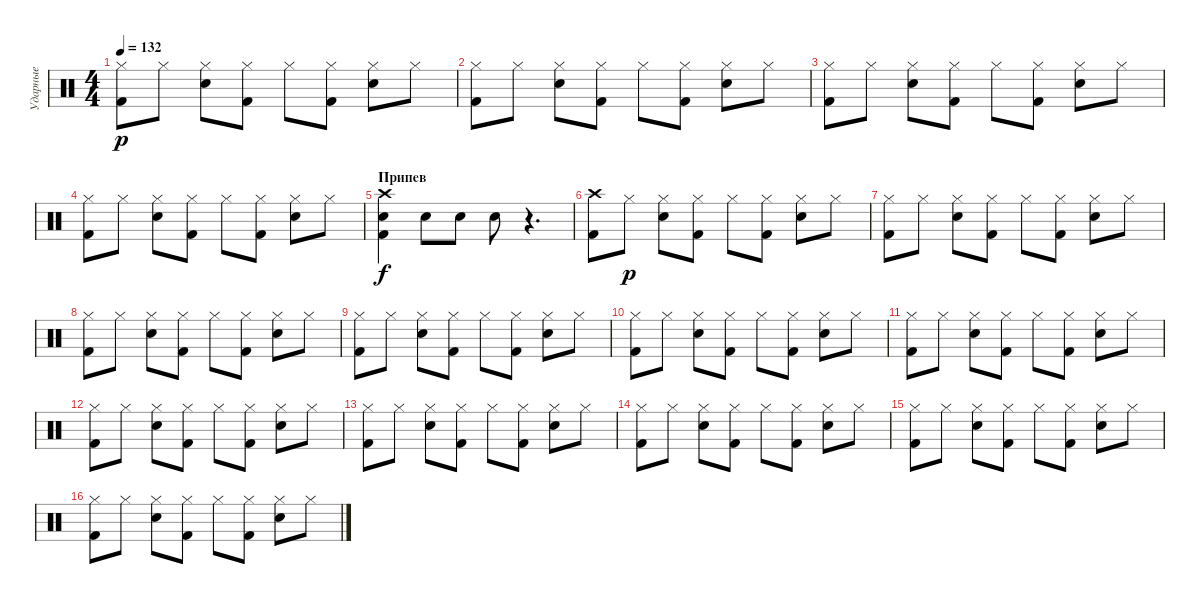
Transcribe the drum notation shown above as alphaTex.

\track ("Ударные" "Ударные") {instrument percussion}
\staff {score}
\articulation defaults
\ts (4 4)
\tempo 132
\clef neutral
\ks c
("Hi-Hat (closed)" "Kick (hit) 2").8{dy p} "Hi-Hat (closed)".8 ("Hi-Hat (closed)" "Snare (hit) 2").8 ("Hi-Hat (closed)" "Kick (hit) 2").8 "Hi-Hat (closed)".8 ("Hi-Hat (closed)" "Kick (hit) 2").8 ("Hi-Hat (closed)" "Snare (hit) 2").8 "Hi-Hat (closed)".8 |
("Hi-Hat (closed)" "Kick (hit) 2").8 "Hi-Hat (closed)".8 ("Hi-Hat (closed)" "Snare (hit) 2").8 ("Hi-Hat (closed)" "Kick (hit) 2").8 "Hi-Hat (closed)".8 ("Hi-Hat (closed)" "Kick (hit) 2").8 ("Hi-Hat (closed)" "Snare (hit) 2").8 "Hi-Hat (closed)".8 |
("Hi-Hat (closed)" "Kick (hit) 2").8 "Hi-Hat (closed)".8 ("Hi-Hat (closed)" "Snare (hit) 2").8 ("Hi-Hat (closed)" "Kick (hit) 2").8 "Hi-Hat (closed)".8 ("Hi-Hat (closed)" "Kick (hit) 2").8 ("Hi-Hat (closed)" "Snare (hit) 2").8 "Hi-Hat (closed)".8 |
("Hi-Hat (closed)" "Kick (hit) 2").8 "Hi-Hat (closed)".8 ("Hi-Hat (closed)" "Snare (hit) 2").8 ("Hi-Hat (closed)" "Kick (hit) 2").8 "Hi-Hat (closed)".8 ("Hi-Hat (closed)" "Kick (hit) 2").8 ("Hi-Hat (closed)" "Snare (hit) 2").8 "Hi-Hat (closed)".8 |
\section ("" "Припев")
("Crash high (hit)" "Snare (hit) 2" "Kick (hit) 2").4{dy f} "Snare (hit) 2".8 "Snare (hit) 2".8 "Snare (hit) 2".8 r.4{d} |
("Crash high (hit)" "Kick (hit) 2").8 "Hi-Hat (closed)".8{dy p} ("Hi-Hat (closed)" "Snare (hit) 2").8 ("Hi-Hat (closed)" "Kick (hit) 2").8 "Hi-Hat (closed)".8 ("Hi-Hat (closed)" "Kick (hit) 2").8 ("Hi-Hat (closed)" "Snare (hit) 2").8 "Hi-Hat (closed)".8 |
("Hi-Hat (closed)" "Kick (hit) 2").8 "Hi-Hat (closed)".8 ("Hi-Hat (closed)" "Snare (hit) 2").8 ("Hi-Hat (closed)" "Kick (hit) 2").8 "Hi-Hat (closed)".8 ("Hi-Hat (closed)" "Kick (hit) 2").8 ("Hi-Hat (closed)" "Snare (hit) 2").8 "Hi-Hat (closed)".8 |
("Hi-Hat (closed)" "Kick (hit) 2").8 "Hi-Hat (closed)".8 ("Hi-Hat (closed)" "Snare (hit) 2").8 ("Hi-Hat (closed)" "Kick (hit) 2").8 "Hi-Hat (closed)".8 ("Hi-Hat (closed)" "Kick (hit) 2").8 ("Hi-Hat (closed)" "Snare (hit) 2").8 "Hi-Hat (closed)".8 |
("Hi-Hat (closed)" "Kick (hit) 2").8 "Hi-Hat (closed)".8 ("Hi-Hat (closed)" "Snare (hit) 2").8 ("Hi-Hat (closed)" "Kick (hit) 2").8 "Hi-Hat (closed)".8 ("Hi-Hat (closed)" "Kick (hit) 2").8 ("Hi-Hat (closed)" "Snare (hit) 2").8 "Hi-Hat (closed)".8 |
("Hi-Hat (closed)" "Kick (hit) 2").8 "Hi-Hat (closed)".8 ("Hi-Hat (closed)" "Snare (hit) 2").8 ("Hi-Hat (closed)" "Kick (hit) 2").8 "Hi-Hat (closed)".8 ("Hi-Hat (closed)" "Kick (hit) 2").8 ("Hi-Hat (closed)" "Snare (hit) 2").8 "Hi-Hat (closed)".8 |
("Hi-Hat (closed)" "Kick (hit) 2").8 "Hi-Hat (closed)".8 ("Hi-Hat (closed)" "Snare (hit) 2").8 ("Hi-Hat (closed)" "Kick (hit) 2").8 "Hi-Hat (closed)".8 ("Hi-Hat (closed)" "Kick (hit) 2").8 ("Hi-Hat (closed)" "Snare (hit) 2").8 "Hi-Hat (closed)".8 |
("Hi-Hat (closed)" "Kick (hit) 2").8 "Hi-Hat (closed)".8 ("Hi-Hat (closed)" "Snare (hit) 2").8 ("Hi-Hat (closed)" "Kick (hit) 2").8 "Hi-Hat (closed)".8 ("Hi-Hat (closed)" "Kick (hit) 2").8 ("Hi-Hat (closed)" "Snare (hit) 2").8 "Hi-Hat (closed)".8 |
("Hi-Hat (closed)" "Kick (hit) 2").8 "Hi-Hat (closed)".8 ("Hi-Hat (closed)" "Snare (hit) 2").8 ("Hi-Hat (closed)" "Kick (hit) 2").8 "Hi-Hat (closed)".8 ("Hi-Hat (closed)" "Kick (hit) 2").8 ("Hi-Hat (closed)" "Snare (hit) 2").8 "Hi-Hat (closed)".8 |
("Hi-Hat (closed)" "Kick (hit) 2").8 "Hi-Hat (closed)".8 ("Hi-Hat (closed)" "Snare (hit) 2").8 ("Hi-Hat (closed)" "Kick (hit) 2").8 "Hi-Hat (closed)".8 ("Hi-Hat (closed)" "Kick (hit) 2").8 ("Hi-Hat (closed)" "Snare (hit) 2").8 "Hi-Hat (closed)".8 |
("Hi-Hat (closed)" "Kick (hit) 2").8 "Hi-Hat (closed)".8 ("Hi-Hat (closed)" "Snare (hit) 2").8 ("Hi-Hat (closed)" "Kick (hit) 2").8 "Hi-Hat (closed)".8 ("Hi-Hat (closed)" "Kick (hit) 2").8 ("Hi-Hat (closed)" "Snare (hit) 2").8 "Hi-Hat (closed)".8 |
("Hi-Hat (closed)" "Kick (hit) 2").8 "Hi-Hat (closed)".8 ("Hi-Hat (closed)" "Snare (hit) 2").8 ("Hi-Hat (closed)" "Kick (hit) 2").8 "Hi-Hat (closed)".8 ("Hi-Hat (closed)" "Kick (hit) 2").8 ("Hi-Hat (closed)" "Snare (hit) 2").8 "Hi-Hat (closed)".8
